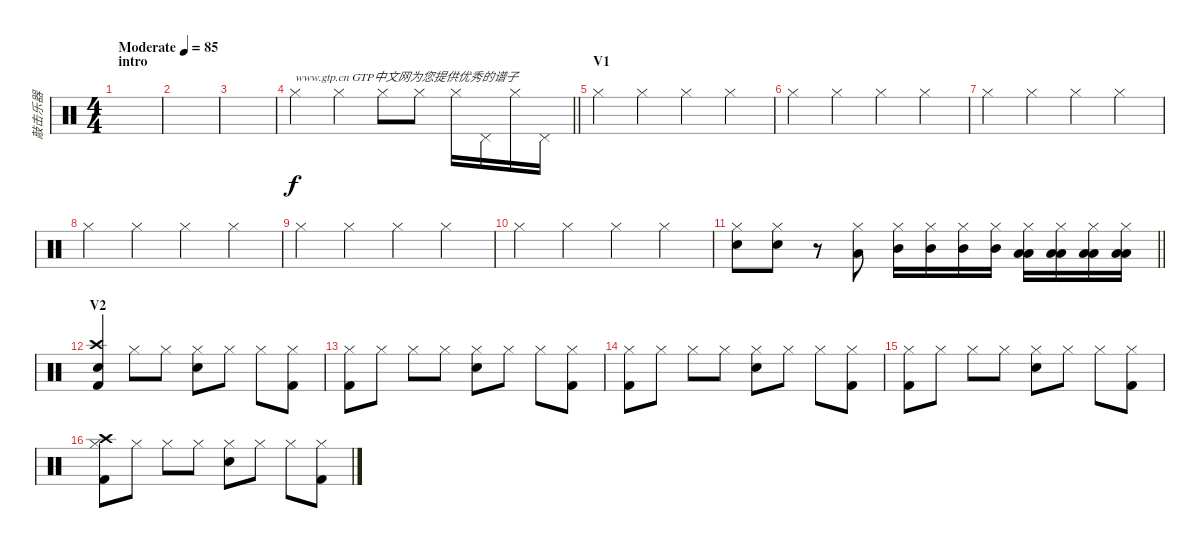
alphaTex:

\track ("敲击乐器" "敲击乐器") {instrument percussion}
\staff {score}
\articulation defaults
\ts (4 4)
\section ("" "intro")
\tempo (85 "Moderate")
\clef neutral
\ks c
|
|
|
\barLineRight lightlight "Hi-Hat (closed)".4{txt "www.gtp.cn GTP中文网为您提供优秀的谱子"} "Hi-Hat (closed)".4 "Hi-Hat (closed)".8 "Hi-Hat (closed)".8 "Hi-Hat (closed)".16 "Pedal Hi-Hat (hit)".16 "Hi-Hat (closed)".16 "Pedal Hi-Hat (hit)".16
|
\section ("" "V1")
"Hi-Hat (closed)".4 "Hi-Hat (closed)".4 "Hi-Hat (closed)".4 "Hi-Hat (closed)".4 |
"Hi-Hat (closed)".4 "Hi-Hat (closed)".4 "Hi-Hat (closed)".4 "Hi-Hat (closed)".4 |
"Hi-Hat (closed)".4 "Hi-Hat (closed)".4 "Hi-Hat (closed)".4 "Hi-Hat (closed)".4 |
"Hi-Hat (closed)".4 "Hi-Hat (closed)".4 "Hi-Hat (closed)".4 "Hi-Hat (closed)".4 |
"Hi-Hat (closed)".4 "Hi-Hat (closed)".4 "Hi-Hat (closed)".4 "Hi-Hat (closed)".4 |
"Hi-Hat (closed)".4 "Hi-Hat (closed)".4 "Hi-Hat (closed)".4 "Hi-Hat (closed)".4 |
\barLineRight lightlight
("Hi-Hat (closed)" "Electric Snare (hit)").8 ("Hi-Hat (closed)" "Electric Snare (hit)").8 r.8 ("Low Tom (hit)" "Hi-Hat (closed)").8 ("Mid Tom (hit)" "Hi-Hat (closed)").16 ("Mid Tom (hit)" "Hi-Hat (closed)").16 ("Mid Tom (hit)" "Hi-Hat (closed)").16 ("Mid Tom (hit)" "Hi-Hat (closed)").16 ("Low Tom (hit)" "Low Tom (hit)" "Hi-Hat (closed)").16 ("Low Tom (hit)" "Low Tom (hit)" "Hi-Hat (closed)").16 ("Low Tom (hit)" "Low Tom (hit)" "Hi-Hat (closed)").16 ("Low Tom (hit)" "Low Tom (hit)" "Hi-Hat (closed)").16 |
\section ("" "V2")
("Electric Snare (hit)" "Crash high (hit)" "Kick (hit) 2").4 "Hi-Hat (closed)".8 "Hi-Hat (closed)".8 ("Hi-Hat (closed)" "Electric Snare (hit)").8 "Hi-Hat (closed)".8 "Hi-Hat (closed)".8 ("Hi-Hat (closed)" "Kick (hit) 2").8 |
("Hi-Hat (closed)" "Kick (hit) 2").8 "Hi-Hat (closed)".8 "Hi-Hat (closed)".8 "Hi-Hat (closed)".8 ("Hi-Hat (closed)" "Electric Snare (hit)").8 "Hi-Hat (closed)".8 "Hi-Hat (closed)".8 ("Kick (hit) 2" "Hi-Hat (closed)").8 |
("Hi-Hat (closed)" "Kick (hit) 2").8 "Hi-Hat (closed)".8 "Hi-Hat (closed)".8 "Hi-Hat (closed)".8 ("Electric Snare (hit)" "Hi-Hat (closed)").8 "Hi-Hat (closed)".8 "Hi-Hat (closed)".8 ("Kick (hit) 2" "Hi-Hat (closed)").8 |
("Hi-Hat (closed)" "Kick (hit) 2").8 "Hi-Hat (closed)".8 "Hi-Hat (closed)".8 "Hi-Hat (closed)".8 ("Electric Snare (hit)" "Hi-Hat (closed)").8 "Hi-Hat (closed)".8 "Hi-Hat (closed)".8 ("Kick (hit) 2" "Hi-Hat (closed)").8 |
("Crash high (hit)" "Hi-Hat (closed)" "Kick (hit) 2").8 "Hi-Hat (closed)".8 "Hi-Hat (closed)".8 "Hi-Hat (closed)".8 ("Electric Snare (hit)" "Hi-Hat (closed)").8 "Hi-Hat (closed)".8 "Hi-Hat (closed)".8 ("Kick (hit) 2" "Hi-Hat (closed)").8
